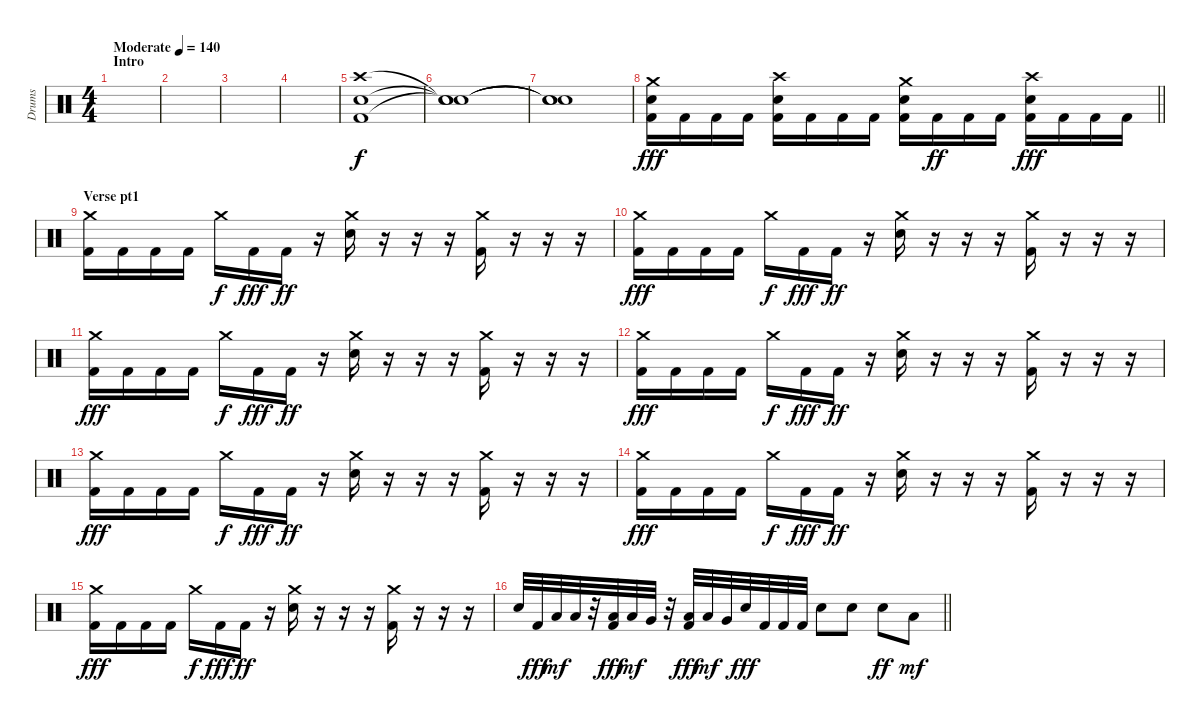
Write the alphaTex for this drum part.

\track ("Drums" "Drums") {instrument percussion}
\staff {score}
\articulation defaults
\ts (4 4)
\section ("" "Intro")
\tempo (140 "Moderate")
\clef neutral
\ks c
|
|
|
|
("Crash high (hit)" "Electric Snare (hit)" "Kick (hit) 2").1 |
("Snare (hit)"{t} "Snare (hit)"{t} "Snare (hit)"{t}).1{dy f} |
("Snare (hit)"{t} "Snare (hit)"{t} "Snare (hit)"{t}).1 |
\barLineRight lightlight
("Crash medium (hit)" "Electric Snare (hit)" "Kick (hit) 2").16{dy fff} "Kick (hit) 2".16 "Kick (hit) 2".16 "Kick (hit) 2".16 ("Crash high (hit)" "Electric Snare (hit)" "Kick (hit) 2").16 "Kick (hit) 2".16 "Kick (hit) 2".16 "Kick (hit) 2".16 ("Crash medium (hit)" "Electric Snare (hit)" "Kick (hit) 2").16 "Kick (hit) 2".16{dy ff} "Kick (hit) 2".16 "Kick (hit) 2".16 ("Crash high (hit)" "Electric Snare (hit)" "Kick (hit) 2").16{dy fff} "Kick (hit) 2".16 "Kick (hit) 2".16 "Kick (hit) 2".16 |
\section ("" "Verse pt1")
("Crash medium (hit)" "Kick (hit) 2").16 "Kick (hit) 2".16 "Kick (hit) 2".16 "Kick (hit) 2".16 "Crash medium (hit)".16{dy f} "Kick (hit) 2".16{dy fff} "Kick (hit) 2".16{dy ff} r.16 ("Crash medium (hit)" "Electric Snare (hit)").16 r.16 r.16 r.16 ("Crash medium (hit)" "Kick (hit) 2").16 r.16 r.16 r.16 |
("Crash medium (hit)" "Kick (hit) 2").16{dy fff} "Kick (hit) 2".16 "Kick (hit) 2".16 "Kick (hit) 2".16 "Crash medium (hit)".16{dy f} "Kick (hit) 2".16{dy fff} "Kick (hit) 2".16{dy ff} r.16 ("Crash medium (hit)" "Electric Snare (hit)").16 r.16 r.16 r.16 ("Crash medium (hit)" "Kick (hit) 2").16 r.16 r.16 r.16 |
("Crash medium (hit)" "Kick (hit) 2").16{dy fff} "Kick (hit) 2".16 "Kick (hit) 2".16 "Kick (hit) 2".16 "Crash medium (hit)".16{dy f} "Kick (hit) 2".16{dy fff} "Kick (hit) 2".16{dy ff} r.16 ("Crash medium (hit)" "Electric Snare (hit)").16 r.16 r.16 r.16 ("Crash medium (hit)" "Kick (hit) 2").16 r.16 r.16 r.16 |
("Crash medium (hit)" "Kick (hit) 2").16{dy fff} "Kick (hit) 2".16 "Kick (hit) 2".16 "Kick (hit) 2".16 "Crash medium (hit)".16{dy f} "Kick (hit) 2".16{dy fff} "Kick (hit) 2".16{dy ff} r.16 ("Crash medium (hit)" "Electric Snare (hit)").16 r.16 r.16 r.16 ("Crash medium (hit)" "Kick (hit) 2").16 r.16 r.16 r.16 |
("Crash medium (hit)" "Kick (hit) 2").16{dy fff} "Kick (hit) 2".16 "Kick (hit) 2".16 "Kick (hit) 2".16 "Crash medium (hit)".16{dy f} "Kick (hit) 2".16{dy fff} "Kick (hit) 2".16{dy ff} r.16 ("Crash medium (hit)" "Electric Snare (hit)").16 r.16 r.16 r.16 ("Crash medium (hit)" "Kick (hit) 2").16 r.16 r.16 r.16 |
("Crash medium (hit)" "Kick (hit) 2").16{dy fff} "Kick (hit) 2".16 "Kick (hit) 2".16 "Kick (hit) 2".16 "Crash medium (hit)".16{dy f} "Kick (hit) 2".16{dy fff} "Kick (hit) 2".16{dy ff} r.16 ("Crash medium (hit)" "Electric Snare (hit)").16 r.16 r.16 r.16 ("Crash medium (hit)" "Kick (hit) 2").16 r.16 r.16 r.16 |
("Crash medium (hit)" "Kick (hit) 2").16{dy fff} "Kick (hit) 2".16 "Kick (hit) 2".16 "Kick (hit) 2".16 "Crash medium (hit)".16{dy f} "Kick (hit) 2".16{dy fff} "Kick (hit) 2".16{dy ff} r.16 ("Crash medium (hit)" "Electric Snare (hit)").16 r.16 r.16 r.16 ("Crash medium (hit)" "Kick (hit) 2").16 r.16 r.16 r.16 |
\barLineRight lightlight "Electric Snare (hit)".32 "Kick (hit) 2".32{dy fff} "Low Tom (hit)".32{dy mf} "Low Tom (hit)".32
r.32 ("Low Tom (hit)" "Kick (hit) 2").32{dy fff} "Low Tom (hit)".32{dy mf} "Very Low Tom (hit)".32 r.32 ("Low Tom (hit)" "Kick (hit) 2").32{dy fff} "Low Tom (hit)".32{dy mf} "Very Low Tom (hit)".32 "Electric Snare (hit)".32{dy fff} "Kick (hit) 2".32 "Kick (hit) 2".32 "Kick (hit) 2".32 "Electric Snare (hit)".8 "Electric Snare (hit)".8 "Electric Snare (hit)".8{dy ff} "Low Floor Tom (hit)".8{dy mf}
